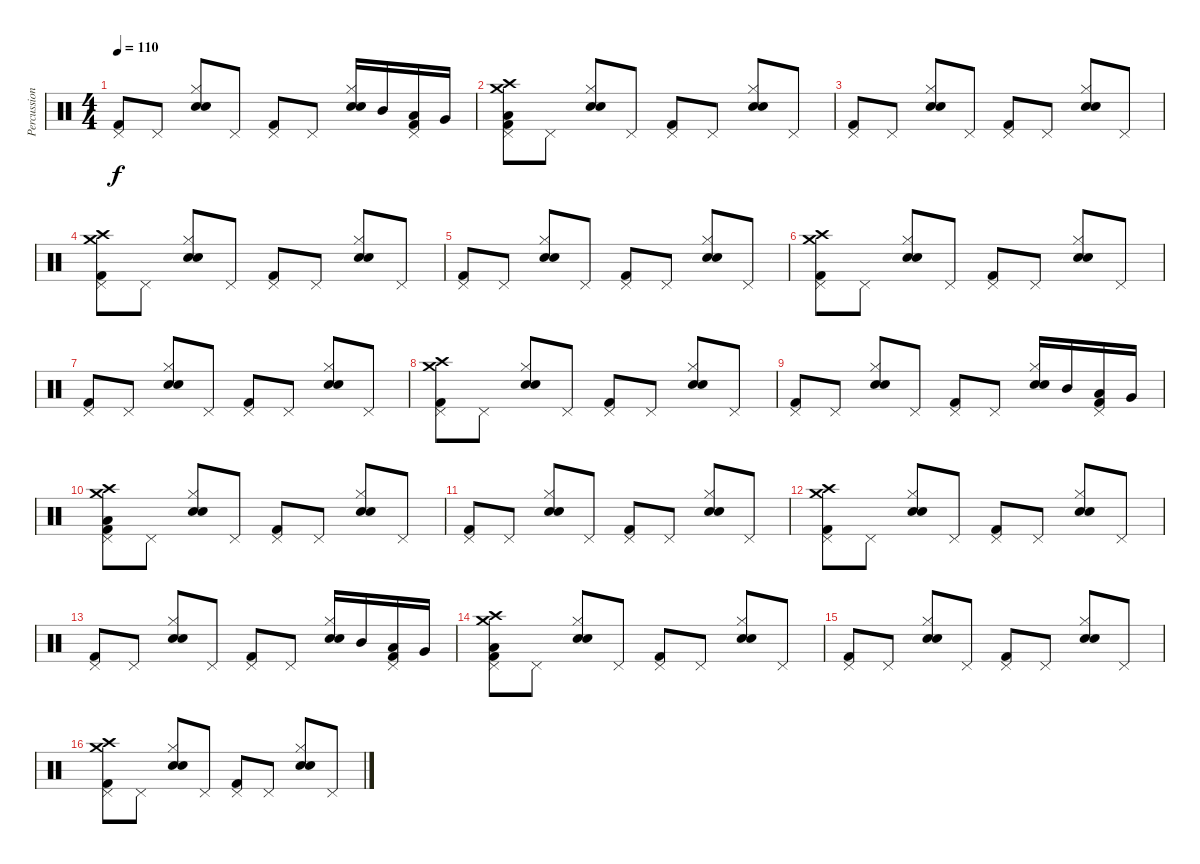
\track ("Percussion" "Percussion") {instrument percussion}
\staff {score}
\articulation defaults
\ts (4 4)
\tempo 110
\clef neutral
\ks c
("Pedal Hi-Hat (hit)" "Kick (hit) 2").8{dy f} "Pedal Hi-Hat (hit)".8 ("Electric Snare (hit)" "Hi-Hat (closed)" "Snare (hit) 2").8 "Pedal Hi-Hat (hit)".8 ("Pedal Hi-Hat (hit)" "Kick (hit) 2").8 "Pedal Hi-Hat (hit)".8 ("Electric Snare (hit)" "Hi-Hat (closed)" "Snare (hit) 2").16 "Mid Tom (hit)".16 ("Low Tom (hit)" "Pedal Hi-Hat (hit)" "Kick (hit) 2").16 "Very Low Tom (hit)".16 |
("Low Floor Tom (hit)" "Crash medium (hit)" "Crash high (hit)" "Pedal Hi-Hat (hit)" "Kick (hit) 2").8 "Pedal Hi-Hat (hit)".8 ("Electric Snare (hit)" "Hi-Hat (closed)" "Snare (hit) 2").8 "Pedal Hi-Hat (hit)".8 ("Pedal Hi-Hat (hit)" "Kick (hit) 2").8 "Pedal Hi-Hat (hit)".8 ("Electric Snare (hit)" "Hi-Hat (closed)" "Snare (hit) 2").8 "Pedal Hi-Hat (hit)".8 |
("Pedal Hi-Hat (hit)" "Kick (hit) 2").8 "Pedal Hi-Hat (hit)".8 ("Electric Snare (hit)" "Hi-Hat (closed)" "Snare (hit) 2").8 "Pedal Hi-Hat (hit)".8 ("Pedal Hi-Hat (hit)" "Kick (hit) 2").8 "Pedal Hi-Hat (hit)".8 ("Electric Snare (hit)" "Hi-Hat (closed)" "Snare (hit) 2").8 "Pedal Hi-Hat (hit)".8 |
("Crash medium (hit)" "Crash high (hit)" "Pedal Hi-Hat (hit)" "Kick (hit) 2").8 "Pedal Hi-Hat (hit)".8 ("Electric Snare (hit)" "Hi-Hat (closed)" "Snare (hit) 2").8 "Pedal Hi-Hat (hit)".8 ("Pedal Hi-Hat (hit)" "Kick (hit) 2").8 "Pedal Hi-Hat (hit)".8 ("Electric Snare (hit)" "Hi-Hat (closed)" "Snare (hit) 2").8 "Pedal Hi-Hat (hit)".8 |
("Pedal Hi-Hat (hit)" "Kick (hit) 2").8 "Pedal Hi-Hat (hit)".8 ("Electric Snare (hit)" "Hi-Hat (closed)" "Snare (hit) 2").8 "Pedal Hi-Hat (hit)".8 ("Pedal Hi-Hat (hit)" "Kick (hit) 2").8 "Pedal Hi-Hat (hit)".8 ("Electric Snare (hit)" "Hi-Hat (closed)" "Snare (hit) 2").8 "Pedal Hi-Hat (hit)".8 |
("Crash medium (hit)" "Crash high (hit)" "Pedal Hi-Hat (hit)" "Kick (hit) 2").8 "Pedal Hi-Hat (hit)".8 ("Electric Snare (hit)" "Hi-Hat (closed)" "Snare (hit) 2").8 "Pedal Hi-Hat (hit)".8 ("Pedal Hi-Hat (hit)" "Kick (hit) 2").8 "Pedal Hi-Hat (hit)".8 ("Electric Snare (hit)" "Hi-Hat (closed)" "Snare (hit) 2").8 "Pedal Hi-Hat (hit)".8 |
("Pedal Hi-Hat (hit)" "Kick (hit) 2").8 "Pedal Hi-Hat (hit)".8 ("Electric Snare (hit)" "Hi-Hat (closed)" "Snare (hit) 2").8 "Pedal Hi-Hat (hit)".8 ("Pedal Hi-Hat (hit)" "Kick (hit) 2").8 "Pedal Hi-Hat (hit)".8 ("Electric Snare (hit)" "Hi-Hat (closed)" "Snare (hit) 2").8 "Pedal Hi-Hat (hit)".8 |
("Crash medium (hit)" "Crash high (hit)" "Pedal Hi-Hat (hit)" "Kick (hit) 2").8 "Pedal Hi-Hat (hit)".8 ("Electric Snare (hit)" "Hi-Hat (closed)" "Snare (hit) 2").8 "Pedal Hi-Hat (hit)".8 ("Pedal Hi-Hat (hit)" "Kick (hit) 2").8 "Pedal Hi-Hat (hit)".8 ("Electric Snare (hit)" "Hi-Hat (closed)" "Snare (hit) 2").8 "Pedal Hi-Hat (hit)".8 |
("Pedal Hi-Hat (hit)" "Kick (hit) 2").8 "Pedal Hi-Hat (hit)".8 ("Electric Snare (hit)" "Hi-Hat (closed)" "Snare (hit) 2").8 "Pedal Hi-Hat (hit)".8 ("Pedal Hi-Hat (hit)" "Kick (hit) 2").8 "Pedal Hi-Hat (hit)".8 ("Electric Snare (hit)" "Hi-Hat (closed)" "Snare (hit) 2").16 "Mid Tom (hit)".16 ("Low Tom (hit)" "Pedal Hi-Hat (hit)" "Kick (hit) 2").16 "Very Low Tom (hit)".16 |
("Low Floor Tom (hit)" "Crash medium (hit)" "Crash high (hit)" "Pedal Hi-Hat (hit)" "Kick (hit) 2").8 "Pedal Hi-Hat (hit)".8 ("Electric Snare (hit)" "Hi-Hat (closed)" "Snare (hit) 2").8 "Pedal Hi-Hat (hit)".8 ("Pedal Hi-Hat (hit)" "Kick (hit) 2").8 "Pedal Hi-Hat (hit)".8 ("Electric Snare (hit)" "Hi-Hat (closed)" "Snare (hit) 2").8 "Pedal Hi-Hat (hit)".8 |
("Pedal Hi-Hat (hit)" "Kick (hit) 2").8 "Pedal Hi-Hat (hit)".8 ("Electric Snare (hit)" "Hi-Hat (closed)" "Snare (hit) 2").8 "Pedal Hi-Hat (hit)".8 ("Pedal Hi-Hat (hit)" "Kick (hit) 2").8 "Pedal Hi-Hat (hit)".8 ("Electric Snare (hit)" "Hi-Hat (closed)" "Snare (hit) 2").8 "Pedal Hi-Hat (hit)".8 |
("Crash medium (hit)" "Crash high (hit)" "Pedal Hi-Hat (hit)" "Kick (hit) 2").8 "Pedal Hi-Hat (hit)".8 ("Electric Snare (hit)" "Hi-Hat (closed)" "Snare (hit) 2").8 "Pedal Hi-Hat (hit)".8 ("Pedal Hi-Hat (hit)" "Kick (hit) 2").8 "Pedal Hi-Hat (hit)".8 ("Electric Snare (hit)" "Hi-Hat (closed)" "Snare (hit) 2").8 "Pedal Hi-Hat (hit)".8 |
("Pedal Hi-Hat (hit)" "Kick (hit) 2").8 "Pedal Hi-Hat (hit)".8 ("Electric Snare (hit)" "Hi-Hat (closed)" "Snare (hit) 2").8 "Pedal Hi-Hat (hit)".8 ("Pedal Hi-Hat (hit)" "Kick (hit) 2").8 "Pedal Hi-Hat (hit)".8 ("Electric Snare (hit)" "Hi-Hat (closed)" "Snare (hit) 2").16 "Mid Tom (hit)".16 ("Low Tom (hit)" "Pedal Hi-Hat (hit)" "Kick (hit) 2").16 "Very Low Tom (hit)".16 |
("Low Floor Tom (hit)" "Crash medium (hit)" "Crash high (hit)" "Pedal Hi-Hat (hit)" "Kick (hit) 2").8 "Pedal Hi-Hat (hit)".8 ("Electric Snare (hit)" "Hi-Hat (closed)" "Snare (hit) 2").8 "Pedal Hi-Hat (hit)".8 ("Pedal Hi-Hat (hit)" "Kick (hit) 2").8 "Pedal Hi-Hat (hit)".8 ("Electric Snare (hit)" "Hi-Hat (closed)" "Snare (hit) 2").8 "Pedal Hi-Hat (hit)".8 |
("Pedal Hi-Hat (hit)" "Kick (hit) 2").8 "Pedal Hi-Hat (hit)".8 ("Electric Snare (hit)" "Hi-Hat (closed)" "Snare (hit) 2").8 "Pedal Hi-Hat (hit)".8 ("Pedal Hi-Hat (hit)" "Kick (hit) 2").8 "Pedal Hi-Hat (hit)".8 ("Electric Snare (hit)" "Hi-Hat (closed)" "Snare (hit) 2").8 "Pedal Hi-Hat (hit)".8 |
("Crash medium (hit)" "Crash high (hit)" "Pedal Hi-Hat (hit)" "Kick (hit) 2").8 "Pedal Hi-Hat (hit)".8 ("Electric Snare (hit)" "Hi-Hat (closed)" "Snare (hit) 2").8 "Pedal Hi-Hat (hit)".8 ("Pedal Hi-Hat (hit)" "Kick (hit) 2").8 "Pedal Hi-Hat (hit)".8 ("Electric Snare (hit)" "Hi-Hat (closed)" "Snare (hit) 2").8 "Pedal Hi-Hat (hit)".8
